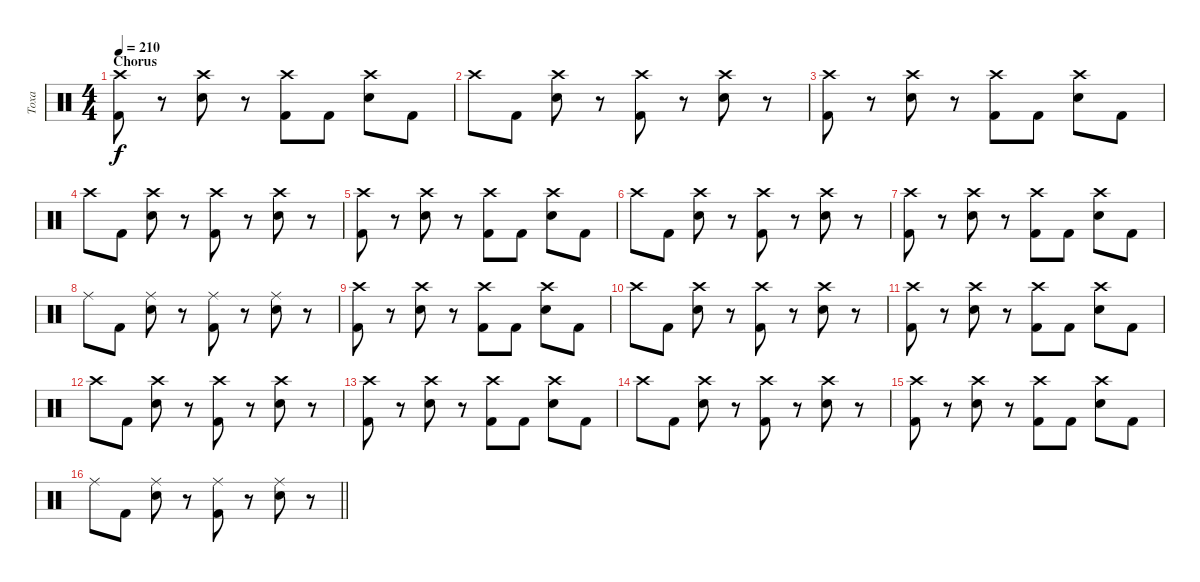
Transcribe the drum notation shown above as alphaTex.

\track ("Toxa" "Toxa") {instrument percussion}
\staff {score}
\articulation defaults
\ts (4 4)
\section ("" "Chorus")
\tempo 210
\clef neutral
\ks c
("Kick (hit) 2" "Crash high (hit)").8{dy f} r.8 ("Snare (hit) 2" "Crash high (hit)").8 r.8 ("Kick (hit) 2" "Crash high (hit)").8 "Kick (hit) 2".8 ("Snare (hit) 2" "Crash high (hit)").8 "Kick (hit) 2".8 |
"Crash high (hit)".8 "Kick (hit) 2".8 ("Snare (hit) 2" "Crash high (hit)").8 r.8 ("Kick (hit) 2" "Crash high (hit)").8 r.8 ("Snare (hit) 2" "Crash high (hit)").8 r.8 |
("Kick (hit) 2" "Crash high (hit)").8 r.8 ("Snare (hit) 2" "Crash high (hit)").8 r.8 ("Kick (hit) 2" "Crash high (hit)").8 "Kick (hit) 2".8 ("Snare (hit) 2" "Crash high (hit)").8 "Kick (hit) 2".8 |
"Crash high (hit)".8 "Kick (hit) 2".8 ("Snare (hit) 2" "Crash high (hit)").8 r.8 ("Kick (hit) 2" "Crash high (hit)").8 r.8 ("Snare (hit) 2" "Crash high (hit)").8 r.8 |
("Kick (hit) 2" "Crash high (hit)").8 r.8 ("Snare (hit) 2" "Crash high (hit)").8 r.8 ("Kick (hit) 2" "Crash high (hit)").8 "Kick (hit) 2".8 ("Snare (hit) 2" "Crash high (hit)").8 "Kick (hit) 2".8 |
"Crash high (hit)".8 "Kick (hit) 2".8 ("Snare (hit) 2" "Crash high (hit)").8 r.8 ("Kick (hit) 2" "Crash high (hit)").8 r.8 ("Snare (hit) 2" "Crash high (hit)").8 r.8 |
("Kick (hit) 2" "Crash high (hit)").8 r.8 ("Snare (hit) 2" "Crash high (hit)").8 r.8 ("Kick (hit) 2" "Crash high (hit)").8 "Kick (hit) 2".8 ("Snare (hit) 2" "Crash high (hit)").8 "Kick (hit) 2".8 |
"Ride (middle)".8 "Kick (hit) 2".8 ("Snare (hit) 2" "Ride (middle)").8 r.8 ("Kick (hit) 2" "Ride (middle)").8 r.8 ("Snare (hit) 2" "Ride (middle)").8 r.8 |
("Kick (hit) 2" "Crash high (hit)").8 r.8 ("Snare (hit) 2" "Crash high (hit)").8 r.8 ("Kick (hit) 2" "Crash high (hit)").8 "Kick (hit) 2".8 ("Snare (hit) 2" "Crash high (hit)").8 "Kick (hit) 2".8 |
"Crash high (hit)".8 "Kick (hit) 2".8 ("Snare (hit) 2" "Crash high (hit)").8 r.8 ("Kick (hit) 2" "Crash high (hit)").8 r.8 ("Snare (hit) 2" "Crash high (hit)").8 r.8 |
("Kick (hit) 2" "Crash high (hit)").8 r.8 ("Snare (hit) 2" "Crash high (hit)").8 r.8 ("Kick (hit) 2" "Crash high (hit)").8 "Kick (hit) 2".8 ("Snare (hit) 2" "Crash high (hit)").8 "Kick (hit) 2".8 |
"Crash high (hit)".8 "Kick (hit) 2".8 ("Snare (hit) 2" "Crash high (hit)").8 r.8 ("Kick (hit) 2" "Crash high (hit)").8 r.8 ("Snare (hit) 2" "Crash high (hit)").8 r.8 |
("Kick (hit) 2" "Crash high (hit)").8 r.8 ("Snare (hit) 2" "Crash high (hit)").8 r.8 ("Kick (hit) 2" "Crash high (hit)").8 "Kick (hit) 2".8 ("Snare (hit) 2" "Crash high (hit)").8 "Kick (hit) 2".8 |
"Crash high (hit)".8 "Kick (hit) 2".8 ("Snare (hit) 2" "Crash high (hit)").8 r.8 ("Kick (hit) 2" "Crash high (hit)").8 r.8 ("Snare (hit) 2" "Crash high (hit)").8 r.8 |
("Kick (hit) 2" "Crash high (hit)").8 r.8 ("Snare (hit) 2" "Crash high (hit)").8 r.8 ("Kick (hit) 2" "Crash high (hit)").8 "Kick (hit) 2".8 ("Snare (hit) 2" "Crash high (hit)").8 "Kick (hit) 2".8 |
\barLineRight lightlight "Ride (middle)".8 "Kick (hit) 2".8
("Snare (hit) 2" "Ride (middle)").8 r.8 ("Kick (hit) 2" "Ride (middle)").8 r.8 ("Snare (hit) 2" "Ride (middle)").8 r.8
